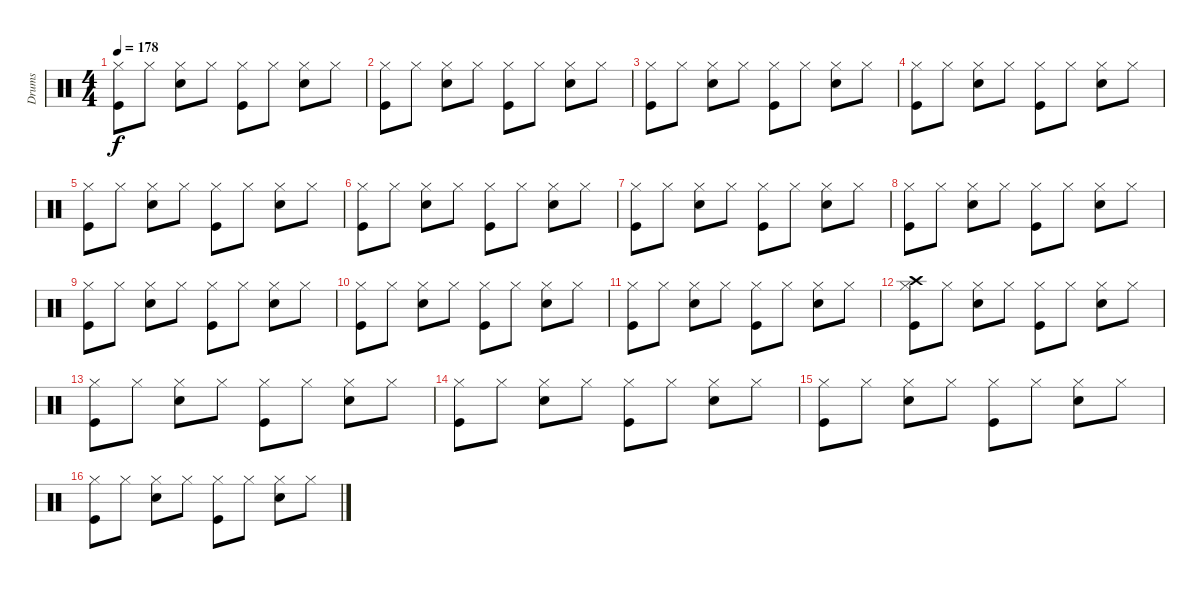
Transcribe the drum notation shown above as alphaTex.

\track ("Drums" "Drums") {instrument percussion}
\staff {score}
\articulation defaults
\ts (4 4)
\tempo 178
\clef neutral
\ks c
("Hi-Hat (closed)" "Kick (hit)").8{dy f} "Hi-Hat (closed)".8 ("Hi-Hat (closed)" "Electric Snare (hit)").8 "Hi-Hat (closed)".8 ("Hi-Hat (closed)" "Kick (hit)").8 "Hi-Hat (closed)".8 ("Hi-Hat (closed)" "Electric Snare (hit)").8 "Hi-Hat (closed)".8 |
("Hi-Hat (closed)" "Kick (hit)").8 "Hi-Hat (closed)".8 ("Hi-Hat (closed)" "Electric Snare (hit)").8 "Hi-Hat (closed)".8 ("Hi-Hat (closed)" "Kick (hit)").8 "Hi-Hat (closed)".8 ("Hi-Hat (closed)" "Electric Snare (hit)").8 "Hi-Hat (closed)".8 |
("Hi-Hat (closed)" "Kick (hit)").8 "Hi-Hat (closed)".8 ("Hi-Hat (closed)" "Electric Snare (hit)").8 "Hi-Hat (closed)".8 ("Hi-Hat (closed)" "Kick (hit)").8 "Hi-Hat (closed)".8 ("Hi-Hat (closed)" "Electric Snare (hit)").8 "Hi-Hat (closed)".8 |
("Hi-Hat (closed)" "Kick (hit)").8 "Hi-Hat (closed)".8 ("Hi-Hat (closed)" "Electric Snare (hit)").8 "Hi-Hat (closed)".8 ("Hi-Hat (closed)" "Kick (hit)").8 "Hi-Hat (closed)".8 ("Hi-Hat (closed)" "Electric Snare (hit)").8 "Hi-Hat (closed)".8 |
("Hi-Hat (closed)" "Kick (hit)").8 "Hi-Hat (closed)".8 ("Hi-Hat (closed)" "Electric Snare (hit)").8 "Hi-Hat (closed)".8 ("Hi-Hat (closed)" "Kick (hit)").8 "Hi-Hat (closed)".8 ("Hi-Hat (closed)" "Electric Snare (hit)").8 "Hi-Hat (closed)".8 |
("Hi-Hat (closed)" "Kick (hit)").8 "Hi-Hat (closed)".8 ("Hi-Hat (closed)" "Electric Snare (hit)").8 "Hi-Hat (closed)".8 ("Hi-Hat (closed)" "Kick (hit)").8 "Hi-Hat (closed)".8 ("Hi-Hat (closed)" "Electric Snare (hit)").8 "Hi-Hat (closed)".8 |
("Hi-Hat (closed)" "Kick (hit)").8 "Hi-Hat (closed)".8 ("Hi-Hat (closed)" "Electric Snare (hit)").8 "Hi-Hat (closed)".8 ("Hi-Hat (closed)" "Kick (hit)").8 "Hi-Hat (closed)".8 ("Hi-Hat (closed)" "Electric Snare (hit)").8 "Hi-Hat (closed)".8 |
("Hi-Hat (closed)" "Kick (hit)").8 "Hi-Hat (closed)".8 ("Hi-Hat (closed)" "Electric Snare (hit)").8 "Hi-Hat (closed)".8 ("Hi-Hat (closed)" "Kick (hit)").8 "Hi-Hat (closed)".8 ("Hi-Hat (closed)" "Electric Snare (hit)").8 "Hi-Hat (closed)".8 |
("Hi-Hat (closed)" "Kick (hit)").8 "Hi-Hat (closed)".8 ("Hi-Hat (closed)" "Electric Snare (hit)").8 "Hi-Hat (closed)".8 ("Hi-Hat (closed)" "Kick (hit)").8 "Hi-Hat (closed)".8 ("Hi-Hat (closed)" "Electric Snare (hit)").8 "Hi-Hat (closed)".8 |
("Hi-Hat (closed)" "Kick (hit)").8 "Hi-Hat (closed)".8 ("Hi-Hat (closed)" "Electric Snare (hit)").8 "Hi-Hat (closed)".8 ("Hi-Hat (closed)" "Kick (hit)").8 "Hi-Hat (closed)".8 ("Hi-Hat (closed)" "Electric Snare (hit)").8 "Hi-Hat (closed)".8 |
("Hi-Hat (closed)" "Kick (hit)").8 "Hi-Hat (closed)".8 ("Hi-Hat (closed)" "Electric Snare (hit)").8 "Hi-Hat (closed)".8 ("Hi-Hat (closed)" "Kick (hit)").8 "Hi-Hat (closed)".8 ("Hi-Hat (closed)" "Electric Snare (hit)").8 "Hi-Hat (closed)".8 |
("Hi-Hat (closed)" "Crash high (hit)" "Kick (hit)").8 "Hi-Hat (closed)".8 ("Hi-Hat (closed)" "Electric Snare (hit)").8 "Hi-Hat (closed)".8 ("Hi-Hat (closed)" "Kick (hit)").8 "Hi-Hat (closed)".8 ("Hi-Hat (closed)" "Electric Snare (hit)").8 "Hi-Hat (closed)".8 |
("Hi-Hat (closed)" "Kick (hit)").8 "Hi-Hat (closed)".8 ("Hi-Hat (closed)" "Electric Snare (hit)").8 "Hi-Hat (closed)".8 ("Hi-Hat (closed)" "Kick (hit)").8 "Hi-Hat (closed)".8 ("Hi-Hat (closed)" "Electric Snare (hit)").8 "Hi-Hat (closed)".8 |
("Hi-Hat (closed)" "Kick (hit)").8 "Hi-Hat (closed)".8 ("Hi-Hat (closed)" "Electric Snare (hit)").8 "Hi-Hat (closed)".8 ("Hi-Hat (closed)" "Kick (hit)").8 "Hi-Hat (closed)".8 ("Hi-Hat (closed)" "Electric Snare (hit)").8 "Hi-Hat (closed)".8 |
("Hi-Hat (closed)" "Kick (hit)").8 "Hi-Hat (closed)".8 ("Hi-Hat (closed)" "Electric Snare (hit)").8 "Hi-Hat (closed)".8 ("Hi-Hat (closed)" "Kick (hit)").8 "Hi-Hat (closed)".8 ("Hi-Hat (closed)" "Electric Snare (hit)").8 "Hi-Hat (closed)".8 |
("Hi-Hat (closed)" "Kick (hit)").8 "Hi-Hat (closed)".8 ("Hi-Hat (closed)" "Electric Snare (hit)").8 "Hi-Hat (closed)".8 ("Hi-Hat (closed)" "Kick (hit)").8 "Hi-Hat (closed)".8 ("Hi-Hat (closed)" "Electric Snare (hit)").8 "Hi-Hat (closed)".8
